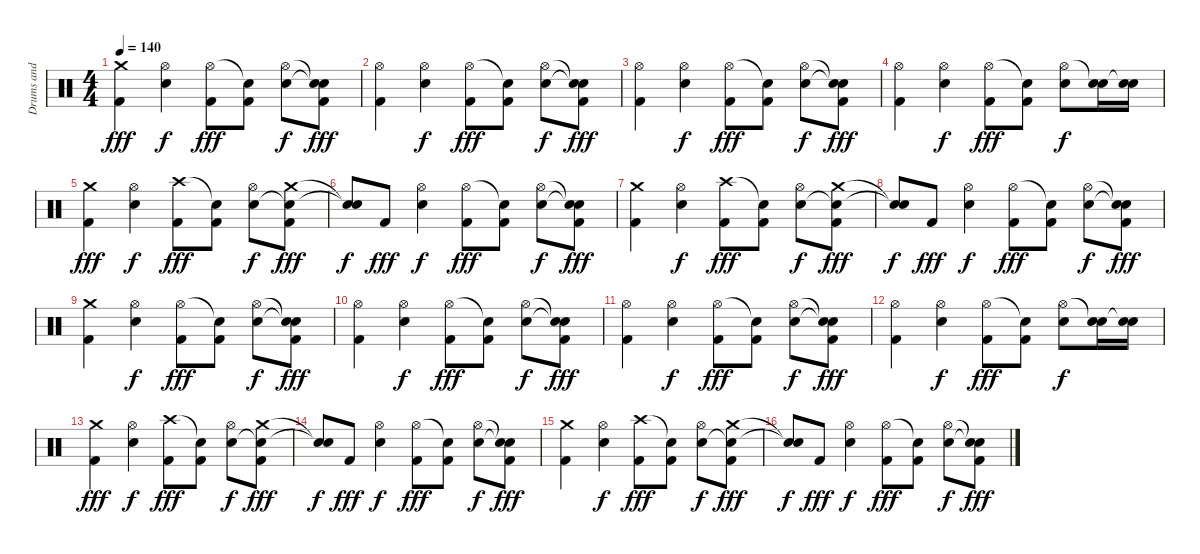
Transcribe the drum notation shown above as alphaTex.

\track ("Drums and Percussion" "Drums and ") {instrument percussion}
\staff {score}
\articulation defaults
\ts (4 4)
\tempo 140
\clef neutral
\ks c
("Crash medium (hit)" "Kick (hit) 2").4{dy fff} ("Hi-Hat (open)" "Snare (hit) 2").4{dy f} ("Hi-Hat (open)" "Kick (hit) 2").8{dy fff} ("Snare (hit)"{t} "Kick (hit) 2").8 ("Hi-Hat (open)" "Snare (hit) 2").8{dy f} ("Snare (hit)"{t} "Snare (hit)"{t} "Kick (hit) 2").8{dy fff} |
("Hi-Hat (open)" "Kick (hit) 2").4 ("Hi-Hat (open)" "Snare (hit) 2").4{dy f} ("Hi-Hat (open)" "Kick (hit) 2").8{dy fff} ("Snare (hit)"{t} "Kick (hit) 2").8 ("Hi-Hat (open)" "Snare (hit) 2").8{dy f} ("Snare (hit)"{t} "Snare (hit)"{t} "Kick (hit) 2").8{dy fff} |
("Hi-Hat (open)" "Kick (hit) 2").4 ("Hi-Hat (open)" "Snare (hit) 2").4{dy f} ("Hi-Hat (open)" "Kick (hit) 2").8{dy fff} ("Snare (hit)"{t} "Kick (hit) 2").8 ("Hi-Hat (open)" "Snare (hit) 2").8{dy f} ("Snare (hit)"{t} "Snare (hit)"{t} "Kick (hit) 2").8{dy fff} |
("Hi-Hat (open)" "Kick (hit) 2").4 ("Hi-Hat (open)" "Snare (hit) 2").4{dy f} ("Hi-Hat (open)" "Kick (hit) 2").8{dy fff} ("Snare (hit)"{t} "Kick (hit) 2").8 ("Hi-Hat (open)" "Snare (hit) 2").8{dy f} ("Snare (hit)"{t} "Snare (hit) 2").16 ("Snare (hit)"{t} "Snare (hit) 2").16 |
("Crash medium (hit)" "Kick (hit) 2").4{dy fff} ("Hi-Hat (open)" "Snare (hit) 2").4{dy f} ("Crash high (hit)" "Kick (hit) 2").8{dy fff} ("Snare (hit)"{t} "Kick (hit) 2").8 ("Hi-Hat (open)" "Snare (hit) 2").8{dy f} ("Crash medium (hit)" "Snare (hit)"{t} "Kick (hit) 2").8{dy fff} |
("Snare (hit)"{t} "Snare (hit)"{t}).8{dy f} "Kick (hit) 2".8{dy fff} ("Hi-Hat (open)" "Snare (hit) 2").4{dy f} ("Hi-Hat (open)" "Kick (hit) 2").8{dy fff} ("Snare (hit)"{t} "Kick (hit) 2").8 ("Hi-Hat (open)" "Snare (hit) 2").8{dy f} ("Snare (hit)"{t} "Snare (hit)"{t} "Kick (hit) 2").8{dy fff} |
("Crash medium (hit)" "Kick (hit) 2").4 ("Hi-Hat (open)" "Snare (hit) 2").4{dy f} ("Crash high (hit)" "Kick (hit) 2").8{dy fff} ("Snare (hit)"{t} "Kick (hit) 2").8 ("Hi-Hat (open)" "Snare (hit) 2").8{dy f} ("Crash medium (hit)" "Snare (hit)"{t} "Kick (hit) 2").8{dy fff} |
("Snare (hit)"{t} "Snare (hit)"{t}).8{dy f} "Kick (hit) 2".8{dy fff} ("Hi-Hat (open)" "Snare (hit) 2").4{dy f} ("Hi-Hat (open)" "Kick (hit) 2").8{dy fff} ("Snare (hit)"{t} "Kick (hit) 2").8 ("Hi-Hat (open)" "Snare (hit) 2").8{dy f} ("Snare (hit)"{t} "Snare (hit)"{t} "Kick (hit) 2").8{dy fff} |
("Crash medium (hit)" "Kick (hit) 2").4 ("Hi-Hat (open)" "Snare (hit) 2").4{dy f} ("Hi-Hat (open)" "Kick (hit) 2").8{dy fff} ("Snare (hit)"{t} "Kick (hit) 2").8 ("Hi-Hat (open)" "Snare (hit) 2").8{dy f} ("Snare (hit)"{t} "Snare (hit)"{t} "Kick (hit) 2").8{dy fff} |
("Hi-Hat (open)" "Kick (hit) 2").4 ("Hi-Hat (open)" "Snare (hit) 2").4{dy f} ("Hi-Hat (open)" "Kick (hit) 2").8{dy fff} ("Snare (hit)"{t} "Kick (hit) 2").8 ("Hi-Hat (open)" "Snare (hit) 2").8{dy f} ("Snare (hit)"{t} "Snare (hit)"{t} "Kick (hit) 2").8{dy fff} |
("Hi-Hat (open)" "Kick (hit) 2").4 ("Hi-Hat (open)" "Snare (hit) 2").4{dy f} ("Hi-Hat (open)" "Kick (hit) 2").8{dy fff} ("Snare (hit)"{t} "Kick (hit) 2").8 ("Hi-Hat (open)" "Snare (hit) 2").8{dy f} ("Snare (hit)"{t} "Snare (hit)"{t} "Kick (hit) 2").8{dy fff} |
("Hi-Hat (open)" "Kick (hit) 2").4 ("Hi-Hat (open)" "Snare (hit) 2").4{dy f} ("Hi-Hat (open)" "Kick (hit) 2").8{dy fff} ("Snare (hit)"{t} "Kick (hit) 2").8 ("Hi-Hat (open)" "Snare (hit) 2").8{dy f} ("Snare (hit)"{t} "Snare (hit) 2").16 ("Snare (hit)"{t} "Snare (hit) 2").16 |
("Crash medium (hit)" "Kick (hit) 2").4{dy fff volume 0} ("Hi-Hat (open)" "Snare (hit) 2").4{dy f} ("Crash high (hit)" "Kick (hit) 2").8{dy fff} ("Snare (hit)"{t} "Kick (hit) 2").8 ("Hi-Hat (open)" "Snare (hit) 2").8{dy f} ("Crash medium (hit)" "Snare (hit)"{t} "Kick (hit) 2").8{dy fff} |
("Snare (hit)"{t} "Snare (hit)"{t}).8{dy f} "Kick (hit) 2".8{dy fff} ("Hi-Hat (open)" "Snare (hit) 2").4{dy f} ("Hi-Hat (open)" "Kick (hit) 2").8{dy fff} ("Snare (hit)"{t} "Kick (hit) 2").8 ("Hi-Hat (open)" "Snare (hit) 2").8{dy f} ("Snare (hit)"{t} "Snare (hit)"{t} "Kick (hit) 2").8{dy fff} |
("Crash medium (hit)" "Kick (hit) 2").4 ("Hi-Hat (open)" "Snare (hit) 2").4{dy f} ("Crash high (hit)" "Kick (hit) 2").8{dy fff} ("Snare (hit)"{t} "Kick (hit) 2").8 ("Hi-Hat (open)" "Snare (hit) 2").8{dy f} ("Crash medium (hit)" "Snare (hit)"{t} "Kick (hit) 2").8{dy fff} |
("Snare (hit)"{t} "Snare (hit)"{t}).8{dy f} "Kick (hit) 2".8{dy fff} ("Hi-Hat (open)" "Snare (hit) 2").4{dy f} ("Hi-Hat (open)" "Kick (hit) 2").8{dy fff} ("Snare (hit)"{t} "Kick (hit) 2").8 ("Hi-Hat (open)" "Snare (hit) 2").8{dy f} ("Snare (hit)"{t} "Snare (hit)"{t} "Kick (hit) 2").8{dy fff}
